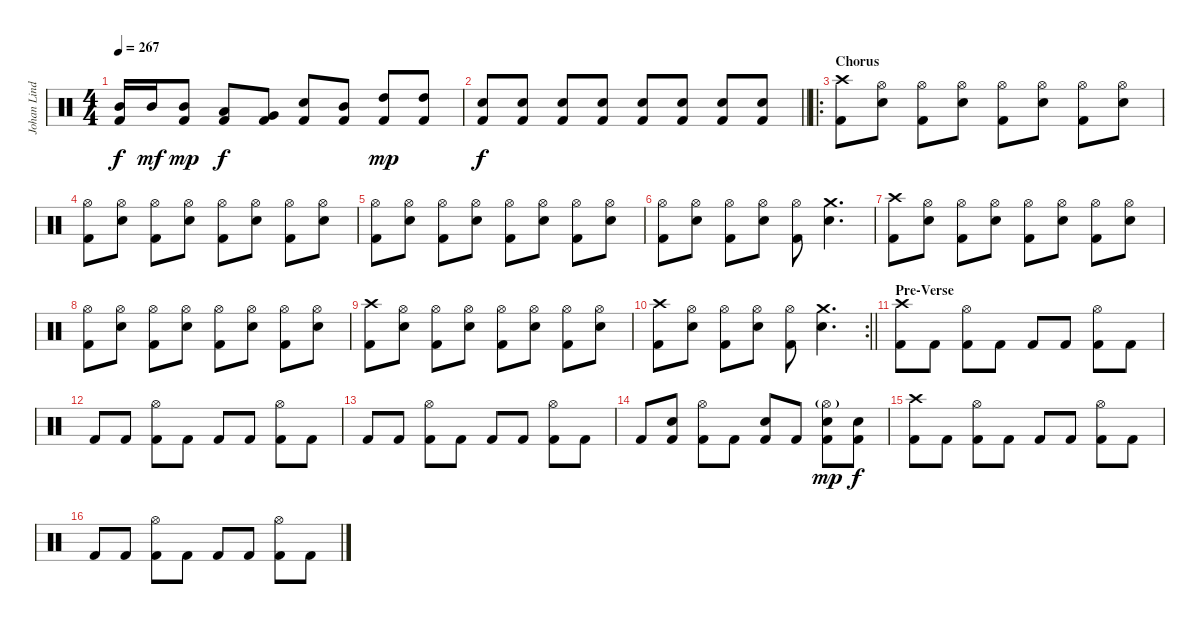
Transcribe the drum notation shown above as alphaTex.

\track ("Johan Lindstrand" "Johan Lind") {instrument percussion}
\staff {score}
\articulation defaults
\ts (4 4)
\tempo 267
\clef neutral
\ks c
("Mid Tom (hit)" "Kick (hit) 2").16{dy f} "Mid Tom (hit)".16{dy mf} ("Mid Tom (hit)" "Kick (hit) 2").8{dy mp} ("Low Tom (hit)" "Kick (hit) 2").8{dy f} ("Very Low Tom (hit)" "Kick (hit) 2").8 ("Electric Snare (hit)" "Kick (hit) 2").8 ("Mid Tom (hit)" "Kick (hit) 2").8 ("High Tom (hit)" "Kick (hit) 2").8{dy mp} ("High Tom (hit)" "Kick (hit) 2").8 |
\barLineRight lightlight
("Electric Snare (hit)" "Kick (hit) 2").8{dy f} ("Electric Snare (hit)" "Kick (hit) 2").8 ("Electric Snare (hit)" "Kick (hit) 2").8 ("Electric Snare (hit)" "Kick (hit) 2").8 ("Electric Snare (hit)" "Kick (hit) 2").8 ("Electric Snare (hit)" "Kick (hit) 2").8 ("Electric Snare (hit)" "Kick (hit) 2").8 ("Electric Snare (hit)" "Kick (hit) 2").8 |
\ro
\section ("" "Chorus")
("Crash high (hit)" "Kick (hit) 2").8 ("Hi-Hat (open)" "Electric Snare (hit)").8 ("Hi-Hat (open)" "Kick (hit) 2").8 ("Hi-Hat (open)" "Electric Snare (hit)").8 ("Hi-Hat (open)" "Kick (hit) 2").8 ("Hi-Hat (open)" "Electric Snare (hit)").8 ("Hi-Hat (open)" "Kick (hit) 2").8 ("Hi-Hat (open)" "Electric Snare (hit)").8 |
("Hi-Hat (open)" "Kick (hit) 2").8 ("Hi-Hat (open)" "Electric Snare (hit)").8 ("Hi-Hat (open)" "Kick (hit) 2").8 ("Hi-Hat (open)" "Electric Snare (hit)").8 ("Hi-Hat (open)" "Kick (hit) 2").8 ("Hi-Hat (open)" "Electric Snare (hit)").8 ("Hi-Hat (open)" "Kick (hit) 2").8 ("Hi-Hat (open)" "Electric Snare (hit)").8 |
("Hi-Hat (open)" "Kick (hit) 2").8 ("Hi-Hat (open)" "Electric Snare (hit)").8 ("Hi-Hat (open)" "Kick (hit) 2").8 ("Hi-Hat (open)" "Electric Snare (hit)").8 ("Hi-Hat (open)" "Kick (hit) 2").8 ("Hi-Hat (open)" "Electric Snare (hit)").8 ("Hi-Hat (open)" "Kick (hit) 2").8 ("Hi-Hat (open)" "Electric Snare (hit)").8 |
("Hi-Hat (open)" "Kick (hit) 2").8 ("Hi-Hat (open)" "Electric Snare (hit)").8 ("Hi-Hat (open)" "Kick (hit) 2").8 ("Hi-Hat (open)" "Electric Snare (hit)").8 ("Hi-Hat (open)" "Kick (hit) 2").8 ("Crash medium (hit)" "Electric Snare (hit)").4{d} |
("Crash high (hit)" "Kick (hit) 2").8 ("Hi-Hat (open)" "Electric Snare (hit)").8 ("Hi-Hat (open)" "Kick (hit) 2").8 ("Hi-Hat (open)" "Electric Snare (hit)").8 ("Hi-Hat (open)" "Kick (hit) 2").8 ("Hi-Hat (open)" "Electric Snare (hit)").8 ("Hi-Hat (open)" "Kick (hit) 2").8 ("Hi-Hat (open)" "Electric Snare (hit)").8 |
("Hi-Hat (open)" "Kick (hit) 2").8 ("Hi-Hat (open)" "Electric Snare (hit)").8 ("Hi-Hat (open)" "Kick (hit) 2").8 ("Hi-Hat (open)" "Electric Snare (hit)").8 ("Hi-Hat (open)" "Kick (hit) 2").8 ("Hi-Hat (open)" "Electric Snare (hit)").8 ("Hi-Hat (open)" "Kick (hit) 2").8 ("Hi-Hat (open)" "Electric Snare (hit)").8 |
("Crash high (hit)" "Kick (hit) 2").8 ("Hi-Hat (open)" "Electric Snare (hit)").8 ("Hi-Hat (open)" "Kick (hit) 2").8 ("Hi-Hat (open)" "Electric Snare (hit)").8 ("Hi-Hat (open)" "Kick (hit) 2").8 ("Hi-Hat (open)" "Electric Snare (hit)").8 ("Hi-Hat (open)" "Kick (hit) 2").8 ("Hi-Hat (open)" "Electric Snare (hit)").8 |
\rc 2
\barLineRight lightlight
("Crash high (hit)" "Kick (hit) 2").8 ("Hi-Hat (open)" "Electric Snare (hit)").8 ("Hi-Hat (open)" "Kick (hit) 2").8 ("Hi-Hat (open)" "Electric Snare (hit)").8 ("Hi-Hat (open)" "Kick (hit) 2").8 ("Crash medium (hit)" "Electric Snare (hit)").4{d} |
\section ("" "Pre-Verse")
("Crash high (hit)" "Kick (hit) 2").8 "Kick (hit) 2".8 ("Hi-Hat (open)" "Kick (hit) 2").8 "Kick (hit) 2".8 "Kick (hit) 2".8 "Kick (hit) 2".8 ("Hi-Hat (open)" "Kick (hit) 2").8 "Kick (hit) 2".8 |
"Kick (hit) 2".8 "Kick (hit) 2".8 ("Hi-Hat (open)" "Kick (hit) 2").8 "Kick (hit) 2".8 "Kick (hit) 2".8 "Kick (hit) 2".8 ("Hi-Hat (open)" "Kick (hit) 2").8 "Kick (hit) 2".8 |
"Kick (hit) 2".8 "Kick (hit) 2".8 ("Hi-Hat (open)" "Kick (hit) 2").8 "Kick (hit) 2".8 "Kick (hit) 2".8 "Kick (hit) 2".8 ("Hi-Hat (open)" "Kick (hit) 2").8 "Kick (hit) 2".8 |
"Kick (hit) 2".8 ("Electric Snare (hit)" "Kick (hit) 2").8 ("Hi-Hat (open)" "Kick (hit) 2").8 "Kick (hit) 2".8 ("Electric Snare (hit)" "Kick (hit) 2").8 "Kick (hit) 2".8 ("Hi-Hat (open)"{g} "Electric Snare (hit)" "Kick (hit) 2").8{dy mp} ("Electric Snare (hit)" "Kick (hit) 2").8{dy f} |
("Crash high (hit)" "Kick (hit) 2").8 "Kick (hit) 2".8 ("Hi-Hat (open)" "Kick (hit) 2").8 "Kick (hit) 2".8 "Kick (hit) 2".8 "Kick (hit) 2".8 ("Hi-Hat (open)" "Kick (hit) 2").8 "Kick (hit) 2".8 |
"Kick (hit) 2".8 "Kick (hit) 2".8 ("Hi-Hat (open)" "Kick (hit) 2").8 "Kick (hit) 2".8 "Kick (hit) 2".8 "Kick (hit) 2".8 ("Hi-Hat (open)" "Kick (hit) 2").8 "Kick (hit) 2".8
